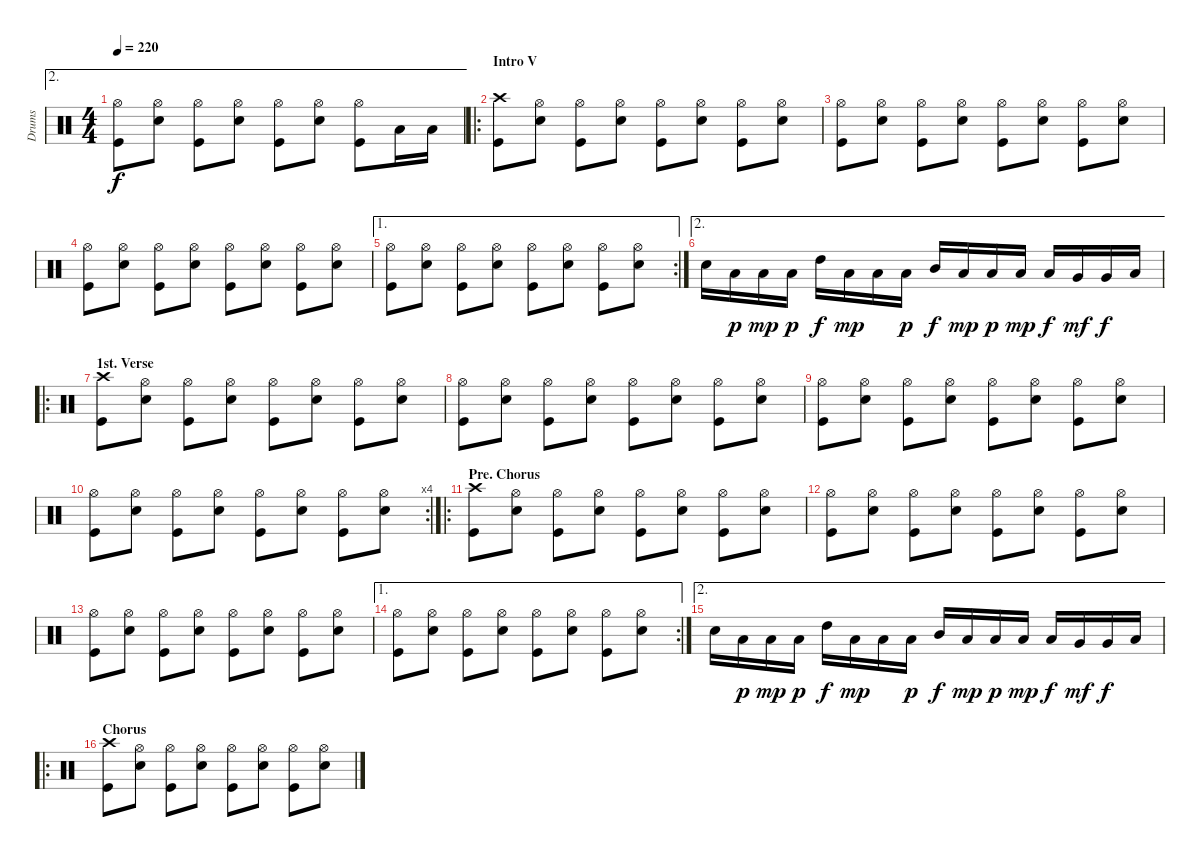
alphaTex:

\track ("Drums" "Drums") {instrument percussion}
\staff {score}
\articulation defaults
\ae 2
\ts (4 4)
\tempo 220
\clef neutral
\ks c
("Hi-Hat (open)" "Kick (hit)").8{dy f} ("Hi-Hat (open)" "Snare (hit) 2").8 ("Hi-Hat (open)" "Kick (hit)").8 ("Hi-Hat (open)" "Snare (hit) 2").8 ("Hi-Hat (open)" "Kick (hit)").8 ("Hi-Hat (open)" "Snare (hit) 2").8 ("Hi-Hat (open)" "Kick (hit)").8 "Low Tom (hit)".16 "Low Tom (hit)".16 |
\ro
\section ("" "Intro V")
("Crash high (hit)" "Kick (hit)").8 ("Hi-Hat (open)" "Snare (hit) 2").8 ("Hi-Hat (open)" "Kick (hit)").8 ("Hi-Hat (open)" "Snare (hit) 2").8 ("Hi-Hat (open)" "Kick (hit)").8 ("Hi-Hat (open)" "Snare (hit) 2").8 ("Hi-Hat (open)" "Kick (hit)").8 ("Hi-Hat (open)" "Snare (hit) 2").8 |
("Hi-Hat (open)" "Kick (hit)").8 ("Hi-Hat (open)" "Snare (hit) 2").8 ("Hi-Hat (open)" "Kick (hit)").8 ("Hi-Hat (open)" "Snare (hit) 2").8 ("Hi-Hat (open)" "Kick (hit)").8 ("Hi-Hat (open)" "Snare (hit) 2").8 ("Hi-Hat (open)" "Kick (hit)").8 ("Hi-Hat (open)" "Snare (hit) 2").8 |
("Hi-Hat (open)" "Kick (hit)").8 ("Hi-Hat (open)" "Snare (hit) 2").8 ("Hi-Hat (open)" "Kick (hit)").8 ("Hi-Hat (open)" "Snare (hit) 2").8 ("Hi-Hat (open)" "Kick (hit)").8 ("Hi-Hat (open)" "Snare (hit) 2").8 ("Hi-Hat (open)" "Kick (hit)").8 ("Hi-Hat (open)" "Snare (hit) 2").8 |
\ae 1
\rc 2
("Hi-Hat (open)" "Kick (hit)").8 ("Hi-Hat (open)" "Snare (hit) 2").8 ("Hi-Hat (open)" "Kick (hit)").8 ("Hi-Hat (open)" "Snare (hit) 2").8 ("Hi-Hat (open)" "Kick (hit)").8 ("Hi-Hat (open)" "Snare (hit) 2").8 ("Hi-Hat (open)" "Kick (hit)").8 ("Hi-Hat (open)" "Snare (hit) 2").8 |
\ae 2 "Snare (hit) 2".16 "Low Tom (hit)".16{dy p} "Low Tom (hit)".16{dy mp} "Low Tom (hit)".16{dy p} "High Tom (hit)".16{dy f} "Low Tom (hit)".16{dy mp} "Low Tom (hit)".16 "Low Tom (hit)".16{dy p} "Mid Tom (hit)".16{dy f} "Low Tom (hit)".16{dy mp} "Low Tom (hit)".16{dy p} "Low Tom (hit)".16{dy mp} "Low Tom (hit)".16{dy f} "Very Low Tom (hit)".16{dy mf} "Very Low Tom (hit)".16{dy f} "Low Floor Tom (hit)".16
|
\ro
\section ("" "1st. Verse")
("Crash high (hit)" "Kick (hit)").8 ("Hi-Hat (open)" "Snare (hit) 2").8 ("Hi-Hat (open)" "Kick (hit)").8 ("Hi-Hat (open)" "Snare (hit) 2").8 ("Hi-Hat (open)" "Kick (hit)").8 ("Hi-Hat (open)" "Snare (hit) 2").8 ("Hi-Hat (open)" "Kick (hit)").8 ("Hi-Hat (open)" "Snare (hit) 2").8 |
("Hi-Hat (open)" "Kick (hit)").8 ("Hi-Hat (open)" "Snare (hit) 2").8 ("Hi-Hat (open)" "Kick (hit)").8 ("Hi-Hat (open)" "Snare (hit) 2").8 ("Hi-Hat (open)" "Kick (hit)").8 ("Hi-Hat (open)" "Snare (hit) 2").8 ("Hi-Hat (open)" "Kick (hit)").8 ("Hi-Hat (open)" "Snare (hit) 2").8 |
("Hi-Hat (open)" "Kick (hit)").8 ("Hi-Hat (open)" "Snare (hit) 2").8 ("Hi-Hat (open)" "Kick (hit)").8 ("Hi-Hat (open)" "Snare (hit) 2").8 ("Hi-Hat (open)" "Kick (hit)").8 ("Hi-Hat (open)" "Snare (hit) 2").8 ("Hi-Hat (open)" "Kick (hit)").8 ("Hi-Hat (open)" "Snare (hit) 2").8 |
\rc 4
("Hi-Hat (open)" "Kick (hit)").8 ("Hi-Hat (open)" "Snare (hit) 2").8 ("Hi-Hat (open)" "Kick (hit)").8 ("Hi-Hat (open)" "Snare (hit) 2").8 ("Hi-Hat (open)" "Kick (hit)").8 ("Hi-Hat (open)" "Snare (hit) 2").8 ("Hi-Hat (open)" "Kick (hit)").8 ("Hi-Hat (open)" "Snare (hit) 2").8 |
\ro
\section ("" "Pre. Chorus")
("Crash high (hit)" "Kick (hit)").8 ("Hi-Hat (open)" "Snare (hit) 2").8 ("Hi-Hat (open)" "Kick (hit)").8 ("Hi-Hat (open)" "Snare (hit) 2").8 ("Hi-Hat (open)" "Kick (hit)").8 ("Hi-Hat (open)" "Snare (hit) 2").8 ("Hi-Hat (open)" "Kick (hit)").8 ("Hi-Hat (open)" "Snare (hit) 2").8 |
("Hi-Hat (open)" "Kick (hit)").8 ("Hi-Hat (open)" "Snare (hit) 2").8 ("Hi-Hat (open)" "Kick (hit)").8 ("Hi-Hat (open)" "Snare (hit) 2").8 ("Hi-Hat (open)" "Kick (hit)").8 ("Hi-Hat (open)" "Snare (hit) 2").8 ("Hi-Hat (open)" "Kick (hit)").8 ("Hi-Hat (open)" "Snare (hit) 2").8 |
("Hi-Hat (open)" "Kick (hit)").8 ("Hi-Hat (open)" "Snare (hit) 2").8 ("Hi-Hat (open)" "Kick (hit)").8 ("Hi-Hat (open)" "Snare (hit) 2").8 ("Hi-Hat (open)" "Kick (hit)").8 ("Hi-Hat (open)" "Snare (hit) 2").8 ("Hi-Hat (open)" "Kick (hit)").8 ("Hi-Hat (open)" "Snare (hit) 2").8 |
\ae 1
\rc 2
("Hi-Hat (open)" "Kick (hit)").8 ("Hi-Hat (open)" "Snare (hit) 2").8 ("Hi-Hat (open)" "Kick (hit)").8 ("Hi-Hat (open)" "Snare (hit) 2").8 ("Hi-Hat (open)" "Kick (hit)").8 ("Hi-Hat (open)" "Snare (hit) 2").8 ("Hi-Hat (open)" "Kick (hit)").8 ("Hi-Hat (open)" "Snare (hit) 2").8 |
\ae 2 "Snare (hit) 2".16 "Low Tom (hit)".16{dy p} "Low Tom (hit)".16{dy mp} "Low Tom (hit)".16{dy p} "High Tom (hit)".16{dy f} "Low Tom (hit)".16{dy mp} "Low Tom (hit)".16 "Low Tom (hit)".16{dy p} "Mid Tom (hit)".16{dy f} "Low Tom (hit)".16{dy mp} "Low Tom (hit)".16{dy p} "Low Tom (hit)".16{dy mp} "Low Tom (hit)".16{dy f} "Very Low Tom (hit)".16{dy mf} "Very Low Tom (hit)".16{dy f} "Low Floor Tom (hit)".16
|
\ro
\section ("" "Chorus")
("Crash high (hit)" "Kick (hit)").8 ("Hi-Hat (open)" "Snare (hit) 2").8 ("Hi-Hat (open)" "Kick (hit)").8 ("Hi-Hat (open)" "Snare (hit) 2").8 ("Hi-Hat (open)" "Kick (hit)").8 ("Hi-Hat (open)" "Snare (hit) 2").8 ("Hi-Hat (open)" "Kick (hit)").8 ("Hi-Hat (open)" "Snare (hit) 2").8
